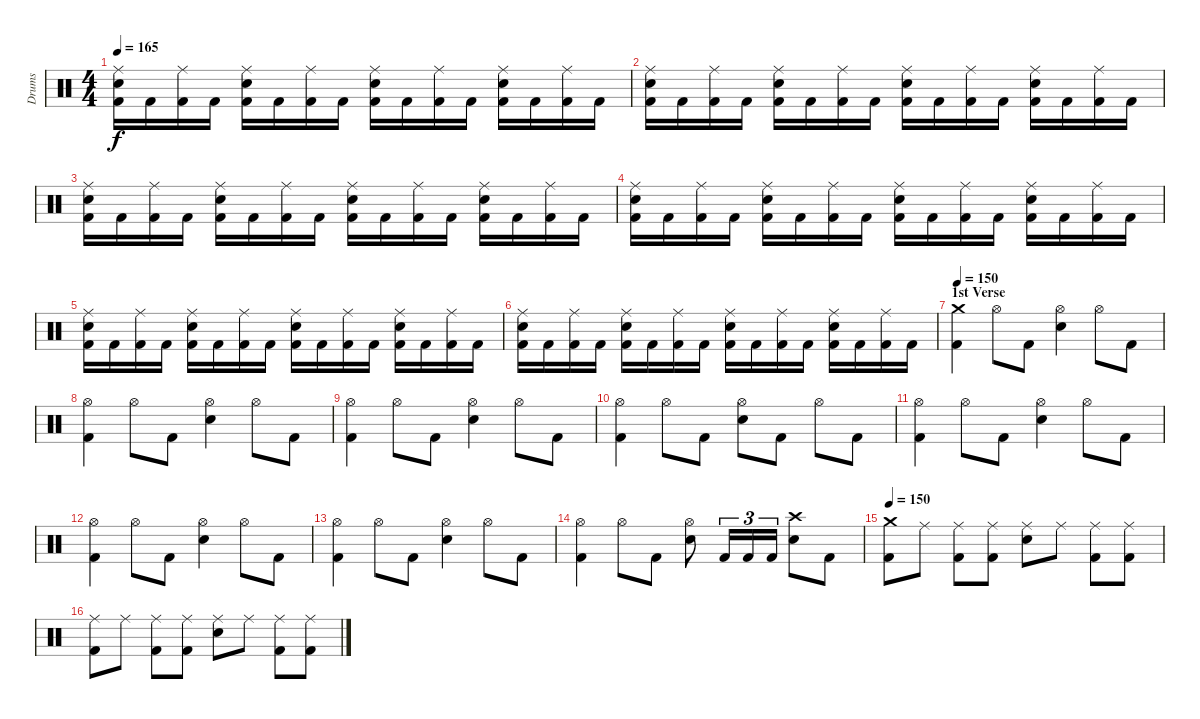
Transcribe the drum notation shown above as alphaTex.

\track ("Drums" "Drums") {instrument percussion}
\staff {score}
\articulation defaults
\ts (4 4)
\tempo 165
\clef neutral
\ks c
("Kick (hit) 2" "Electric Snare (hit)" "Ride (middle)").16{dy f} "Kick (hit) 2".16 ("Kick (hit) 2" "Ride (middle)").16 "Kick (hit) 2".16 ("Kick (hit) 2" "Electric Snare (hit)" "Ride (middle)").16 "Kick (hit) 2".16 ("Kick (hit) 2" "Ride (middle)").16 "Kick (hit) 2".16 ("Kick (hit) 2" "Electric Snare (hit)" "Ride (middle)").16 "Kick (hit) 2".16 ("Kick (hit) 2" "Ride (middle)").16 "Kick (hit) 2".16 ("Kick (hit) 2" "Electric Snare (hit)" "Ride (middle)").16 "Kick (hit) 2".16 ("Kick (hit) 2" "Ride (middle)").16 "Kick (hit) 2".16 |
("Kick (hit) 2" "Electric Snare (hit)" "Ride (middle)").16 "Kick (hit) 2".16 ("Kick (hit) 2" "Ride (middle)").16 "Kick (hit) 2".16 ("Kick (hit) 2" "Electric Snare (hit)" "Ride (middle)").16 "Kick (hit) 2".16 ("Kick (hit) 2" "Ride (middle)").16 "Kick (hit) 2".16 ("Kick (hit) 2" "Electric Snare (hit)" "Ride (middle)").16 "Kick (hit) 2".16 ("Kick (hit) 2" "Ride (middle)").16 "Kick (hit) 2".16 ("Kick (hit) 2" "Electric Snare (hit)" "Ride (middle)").16 "Kick (hit) 2".16 ("Kick (hit) 2" "Ride (middle)").16 "Kick (hit) 2".16 |
("Kick (hit) 2" "Electric Snare (hit)" "Ride (middle)").16 "Kick (hit) 2".16 ("Kick (hit) 2" "Ride (middle)").16 "Kick (hit) 2".16 ("Kick (hit) 2" "Electric Snare (hit)" "Ride (middle)").16 "Kick (hit) 2".16 ("Kick (hit) 2" "Ride (middle)").16 "Kick (hit) 2".16 ("Kick (hit) 2" "Electric Snare (hit)" "Ride (middle)").16 "Kick (hit) 2".16 ("Kick (hit) 2" "Ride (middle)").16 "Kick (hit) 2".16 ("Kick (hit) 2" "Electric Snare (hit)" "Ride (middle)").16 "Kick (hit) 2".16 ("Kick (hit) 2" "Ride (middle)").16 "Kick (hit) 2".16 |
("Kick (hit) 2" "Electric Snare (hit)" "Ride (middle)").16 "Kick (hit) 2".16 ("Kick (hit) 2" "Ride (middle)").16 "Kick (hit) 2".16 ("Kick (hit) 2" "Electric Snare (hit)" "Ride (middle)").16 "Kick (hit) 2".16 ("Kick (hit) 2" "Ride (middle)").16 "Kick (hit) 2".16 ("Kick (hit) 2" "Electric Snare (hit)" "Ride (middle)").16 "Kick (hit) 2".16 ("Kick (hit) 2" "Ride (middle)").16 "Kick (hit) 2".16 ("Kick (hit) 2" "Electric Snare (hit)" "Ride (middle)").16 "Kick (hit) 2".16 ("Kick (hit) 2" "Ride (middle)").16 "Kick (hit) 2".16 |
("Kick (hit) 2" "Electric Snare (hit)" "Ride (middle)").16 "Kick (hit) 2".16 ("Kick (hit) 2" "Ride (middle)").16 "Kick (hit) 2".16 ("Kick (hit) 2" "Electric Snare (hit)" "Ride (middle)").16 "Kick (hit) 2".16 ("Kick (hit) 2" "Ride (middle)").16 "Kick (hit) 2".16 ("Kick (hit) 2" "Electric Snare (hit)" "Ride (middle)").16 "Kick (hit) 2".16 ("Kick (hit) 2" "Ride (middle)").16 "Kick (hit) 2".16 ("Kick (hit) 2" "Electric Snare (hit)" "Ride (middle)").16 "Kick (hit) 2".16 ("Kick (hit) 2" "Ride (middle)").16 "Kick (hit) 2".16 |
("Kick (hit) 2" "Electric Snare (hit)" "Ride (middle)").16 "Kick (hit) 2".16 ("Kick (hit) 2" "Ride (middle)").16 "Kick (hit) 2".16 ("Kick (hit) 2" "Electric Snare (hit)" "Ride (middle)").16 "Kick (hit) 2".16 ("Kick (hit) 2" "Ride (middle)").16 "Kick (hit) 2".16 ("Kick (hit) 2" "Electric Snare (hit)" "Ride (middle)").16 "Kick (hit) 2".16 ("Kick (hit) 2" "Ride (middle)").16 "Kick (hit) 2".16 ("Kick (hit) 2" "Electric Snare (hit)" "Ride (middle)").16 "Kick (hit) 2".16 ("Kick (hit) 2" "Ride (middle)").16 "Kick (hit) 2".16 |
\section ("" "1st Verse")
\tempo 150
("Kick (hit) 2" "Crash medium (hit)").4 "Hi-Hat (open)".8 "Kick (hit) 2".8 ("Electric Snare (hit)" "Hi-Hat (open)").4 "Hi-Hat (open)".8 "Kick (hit) 2".8 |
("Kick (hit) 2" "Hi-Hat (open)").4 "Hi-Hat (open)".8 "Kick (hit) 2".8 ("Electric Snare (hit)" "Hi-Hat (open)").4 "Hi-Hat (open)".8 "Kick (hit) 2".8 |
("Kick (hit) 2" "Hi-Hat (open)").4 "Hi-Hat (open)".8 "Kick (hit) 2".8 ("Electric Snare (hit)" "Hi-Hat (open)").4 "Hi-Hat (open)".8 "Kick (hit) 2".8 |
("Kick (hit) 2" "Hi-Hat (open)").4 "Hi-Hat (open)".8 "Kick (hit) 2".8 ("Electric Snare (hit)" "Hi-Hat (open)").8 "Kick (hit) 2".8 "Hi-Hat (open)".8 "Kick (hit) 2".8 |
("Kick (hit) 2" "Hi-Hat (open)").4 "Hi-Hat (open)".8 "Kick (hit) 2".8 ("Electric Snare (hit)" "Hi-Hat (open)").4 "Hi-Hat (open)".8 "Kick (hit) 2".8 |
("Kick (hit) 2" "Hi-Hat (open)").4 "Hi-Hat (open)".8 "Kick (hit) 2".8 ("Electric Snare (hit)" "Hi-Hat (open)").4 "Hi-Hat (open)".8 "Kick (hit) 2".8 |
("Kick (hit) 2" "Hi-Hat (open)").4 "Hi-Hat (open)".8 "Kick (hit) 2".8 ("Electric Snare (hit)" "Hi-Hat (open)").4 "Hi-Hat (open)".8 "Kick (hit) 2".8 |
("Kick (hit) 2" "Hi-Hat (open)").4 "Hi-Hat (open)".8 "Kick (hit) 2".8 ("Electric Snare (hit)" "Hi-Hat (open)").8 "Kick (hit) 2".16{tu (3 2)} "Kick (hit) 2".16{tu (3 2)} "Kick (hit) 2".16{tu (3 2)} ("Electric Snare (hit)" "Crash high (hit)").8 "Kick (hit) 2".8 |
\tempo 150
("Kick (hit) 2" "Crash medium (hit)").8 "Ride (middle)".8 ("Kick (hit) 2" "Ride (middle)").8 ("Kick (hit) 2" "Ride (middle)").8 ("Electric Snare (hit)" "Ride (middle)").8 "Ride (middle)".8 ("Kick (hit) 2" "Ride (middle)").8 ("Kick (hit) 2" "Ride (middle)").8 |
("Kick (hit) 2" "Ride (middle)").8 "Ride (middle)".8 ("Kick (hit) 2" "Ride (middle)").8 ("Kick (hit) 2" "Ride (middle)").8 ("Electric Snare (hit)" "Ride (middle)").8 "Ride (middle)".8 ("Kick (hit) 2" "Ride (middle)").8 ("Kick (hit) 2" "Ride (middle)").8
